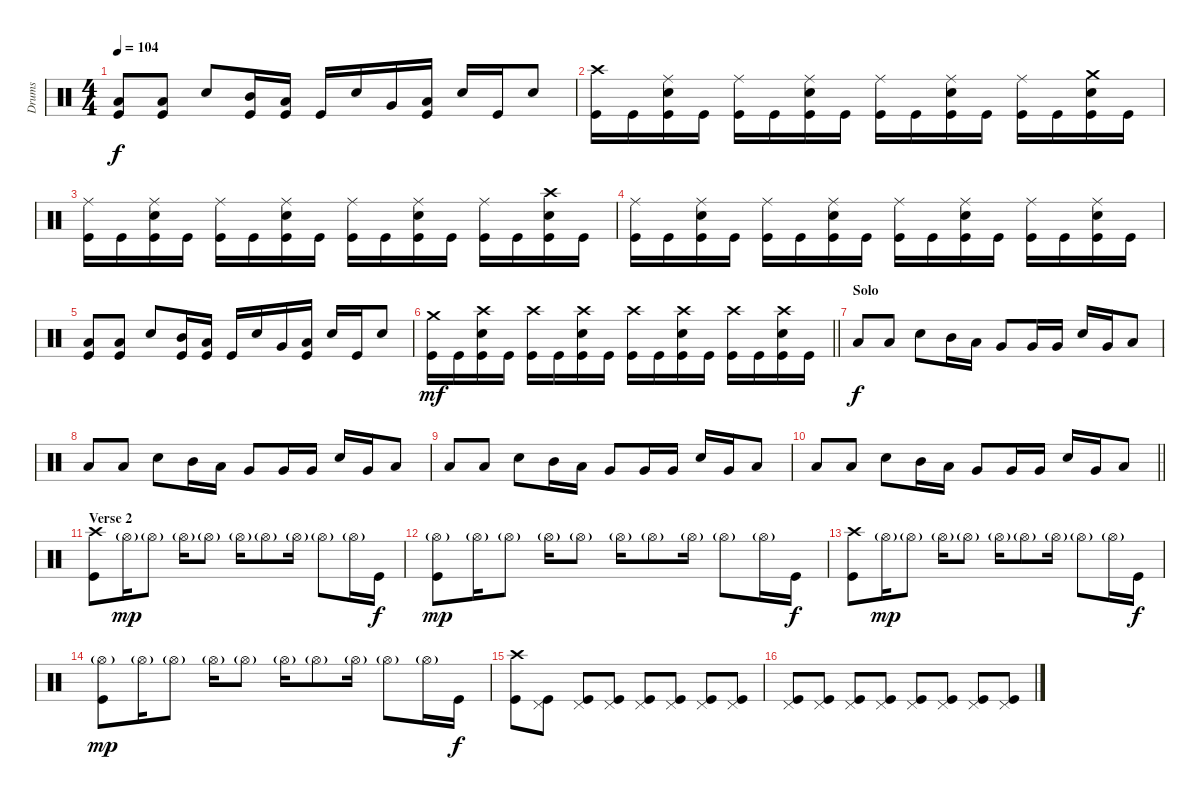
\track ("Drums" "Drums") {instrument percussion}
\staff {score}
\articulation defaults
\ts (4 4)
\tempo 104
\clef neutral
\ks c
("Low Tom (hit)" "Kick (hit)").8{dy f} ("Low Tom (hit)" "Kick (hit)").8 "Electric Snare (hit)".8 ("Mid Tom (hit)" "Kick (hit)").16 ("Low Tom (hit)" "Kick (hit)").16 "Kick (hit)".16 "Electric Snare (hit)".16 "Very Low Tom (hit)".16 ("Low Floor Tom (hit)" "Kick (hit)").16 "Electric Snare (hit)".16 "Kick (hit)".16 "Electric Snare (hit)".8 |
("Crash high (hit)" "Kick (hit)").16 "Kick (hit)".16 ("Ride (middle)" "Electric Snare (hit)" "Kick (hit)").16 "Kick (hit)".16 ("Ride (middle)" "Kick (hit)").16 "Kick (hit)".16 ("Ride (middle)" "Electric Snare (hit)" "Kick (hit)").16 "Kick (hit)".16 ("Ride (middle)" "Kick (hit)").16 "Kick (hit)".16 ("Ride (middle)" "Electric Snare (hit)" "Kick (hit)").16 "Kick (hit)".16 ("Ride (middle)" "Kick (hit)").16 "Kick (hit)".16 ("Crash medium (hit)" "Electric Snare (hit)" "Kick (hit)").16 "Kick (hit)".16 |
("Ride (middle)" "Kick (hit)").16 "Kick (hit)".16 ("Ride (middle)" "Electric Snare (hit)" "Kick (hit)").16 "Kick (hit)".16 ("Ride (middle)" "Kick (hit)").16 "Kick (hit)".16 ("Ride (middle)" "Electric Snare (hit)" "Kick (hit)").16 "Kick (hit)".16 ("Ride (middle)" "Kick (hit)").16 "Kick (hit)".16 ("Ride (middle)" "Electric Snare (hit)" "Kick (hit)").16 "Kick (hit)".16 ("Ride (middle)" "Kick (hit)").16 "Kick (hit)".16 ("Crash high (hit)" "Electric Snare (hit)" "Kick (hit)").16 "Kick (hit)".16 |
("Ride (middle)" "Kick (hit)").16 "Kick (hit)".16 ("Ride (middle)" "Electric Snare (hit)" "Kick (hit)").16 "Kick (hit)".16 ("Ride (middle)" "Kick (hit)").16 "Kick (hit)".16 ("Ride (middle)" "Electric Snare (hit)" "Kick (hit)").16 "Kick (hit)".16 ("Ride (middle)" "Kick (hit)").16 "Kick (hit)".16 ("Ride (middle)" "Electric Snare (hit)" "Kick (hit)").16 "Kick (hit)".16 ("Ride (middle)" "Kick (hit)").16 "Kick (hit)".16 ("Ride (middle)" "Electric Snare (hit)" "Kick (hit)").16 "Kick (hit)".16 |
("Low Tom (hit)" "Kick (hit)").8 ("Low Tom (hit)" "Kick (hit)").8 "Electric Snare (hit)".8 ("Mid Tom (hit)" "Kick (hit)").16 ("Low Tom (hit)" "Kick (hit)").16 "Kick (hit)".16 "Electric Snare (hit)".16 "Very Low Tom (hit)".16 ("Low Floor Tom (hit)" "Kick (hit)").16 "Electric Snare (hit)".16 "Kick (hit)".16 "Electric Snare (hit)".8 |
\barLineRight lightlight
("Crash medium (hit)" "Kick (hit)").16{dy mf} "Kick (hit)".16 ("Crash high (hit)" "Electric Snare (hit)" "Kick (hit)").16 "Kick (hit)".16 ("Crash high (hit)" "Kick (hit)").16 "Kick (hit)".16 ("Crash high (hit)" "Electric Snare (hit)" "Kick (hit)").16 "Kick (hit)".16 ("Crash high (hit)" "Kick (hit)").16 "Kick (hit)".16 ("Crash high (hit)" "Electric Snare (hit)" "Kick (hit)").16 "Kick (hit)".16 ("Crash high (hit)" "Kick (hit)").16 "Kick (hit)".16 ("Crash high (hit)" "Electric Snare (hit)" "Kick (hit)").16 "Kick (hit)".16 |
\section ("" "Solo")
"Low Tom (hit)".8{dy f} "Low Tom (hit)".8 "Electric Snare (hit)".8 "Mid Tom (hit)".16 "Low Tom (hit)".16 "Very Low Tom (hit)".8 "Very Low Tom (hit)".16 "Very Low Tom (hit)".16 "Electric Snare (hit)".16 "Very Low Tom (hit)".16 "Low Floor Tom (hit)".8 |
"Low Tom (hit)".8 "Low Tom (hit)".8 "Electric Snare (hit)".8 "Mid Tom (hit)".16 "Low Tom (hit)".16 "Very Low Tom (hit)".8 "Very Low Tom (hit)".16 "Very Low Tom (hit)".16 "Electric Snare (hit)".16 "Very Low Tom (hit)".16 "Low Floor Tom (hit)".8 |
"Low Tom (hit)".8 "Low Tom (hit)".8 "Electric Snare (hit)".8 "Mid Tom (hit)".16 "Low Tom (hit)".16 "Very Low Tom (hit)".8 "Very Low Tom (hit)".16 "Very Low Tom (hit)".16 "Electric Snare (hit)".16 "Very Low Tom (hit)".16 "Low Floor Tom (hit)".8 |
\barLineRight lightlight "Low Tom (hit)".8 "Low Tom (hit)".8 "Electric Snare (hit)".8 "Mid Tom (hit)".16 "Low Tom (hit)".16 "Very Low Tom (hit)".8 "Very Low Tom (hit)".16 "Very Low Tom (hit)".16 "Electric Snare (hit)".16 "Very Low Tom (hit)".16 "Low Floor Tom (hit)".8
|
\section ("" "Verse 2")
("Crash high (hit)" "Kick (hit)").8 "Hi-Hat (open)"{g}.16{dy mp} "Hi-Hat (open)"{g}.8 "Hi-Hat (open)"{g}.16 "Hi-Hat (open)"{g}.8 "Hi-Hat (open)"{g}.16 "Hi-Hat (open)"{g}.8 "Hi-Hat (open)"{g}.16 "Hi-Hat (open)"{g}.8 "Hi-Hat (open)"{g}.16 "Kick (hit)".16{dy f} |
("Hi-Hat (open)"{g} "Kick (hit)").8{dy mp} "Hi-Hat (open)"{g}.16 "Hi-Hat (open)"{g}.8 "Hi-Hat (open)"{g}.16 "Hi-Hat (open)"{g}.8 "Hi-Hat (open)"{g}.16 "Hi-Hat (open)"{g}.8 "Hi-Hat (open)"{g}.16 "Hi-Hat (open)"{g}.8 "Hi-Hat (open)"{g}.16 "Kick (hit)".16{dy f} |
("Crash high (hit)" "Kick (hit)").8 "Hi-Hat (open)"{g}.16{dy mp} "Hi-Hat (open)"{g}.8 "Hi-Hat (open)"{g}.16 "Hi-Hat (open)"{g}.8 "Hi-Hat (open)"{g}.16 "Hi-Hat (open)"{g}.8 "Hi-Hat (open)"{g}.16 "Hi-Hat (open)"{g}.8 "Hi-Hat (open)"{g}.16 "Kick (hit)".16{dy f} |
("Hi-Hat (open)"{g} "Kick (hit)").8{dy mp} "Hi-Hat (open)"{g}.16 "Hi-Hat (open)"{g}.8 "Hi-Hat (open)"{g}.16 "Hi-Hat (open)"{g}.8 "Hi-Hat (open)"{g}.16 "Hi-Hat (open)"{g}.8 "Hi-Hat (open)"{g}.16 "Hi-Hat (open)"{g}.8 "Hi-Hat (open)"{g}.16 "Kick (hit)".16{dy f} |
("Crash high (hit)" "Kick (hit)").8 ("Pedal Hi-Hat (hit)" "Kick (hit)").8 ("Pedal Hi-Hat (hit)" "Kick (hit)").8 ("Pedal Hi-Hat (hit)" "Kick (hit)").8 ("Pedal Hi-Hat (hit)" "Kick (hit)").8 ("Pedal Hi-Hat (hit)" "Kick (hit)").8 ("Pedal Hi-Hat (hit)" "Kick (hit)").8 ("Pedal Hi-Hat (hit)" "Kick (hit)").8 |
("Pedal Hi-Hat (hit)" "Kick (hit)").8 ("Pedal Hi-Hat (hit)" "Kick (hit)").8 ("Pedal Hi-Hat (hit)" "Kick (hit)").8 ("Pedal Hi-Hat (hit)" "Kick (hit)").8 ("Pedal Hi-Hat (hit)" "Kick (hit)").8 ("Pedal Hi-Hat (hit)" "Kick (hit)").8 ("Pedal Hi-Hat (hit)" "Kick (hit)").8 ("Pedal Hi-Hat (hit)" "Kick (hit)").8
